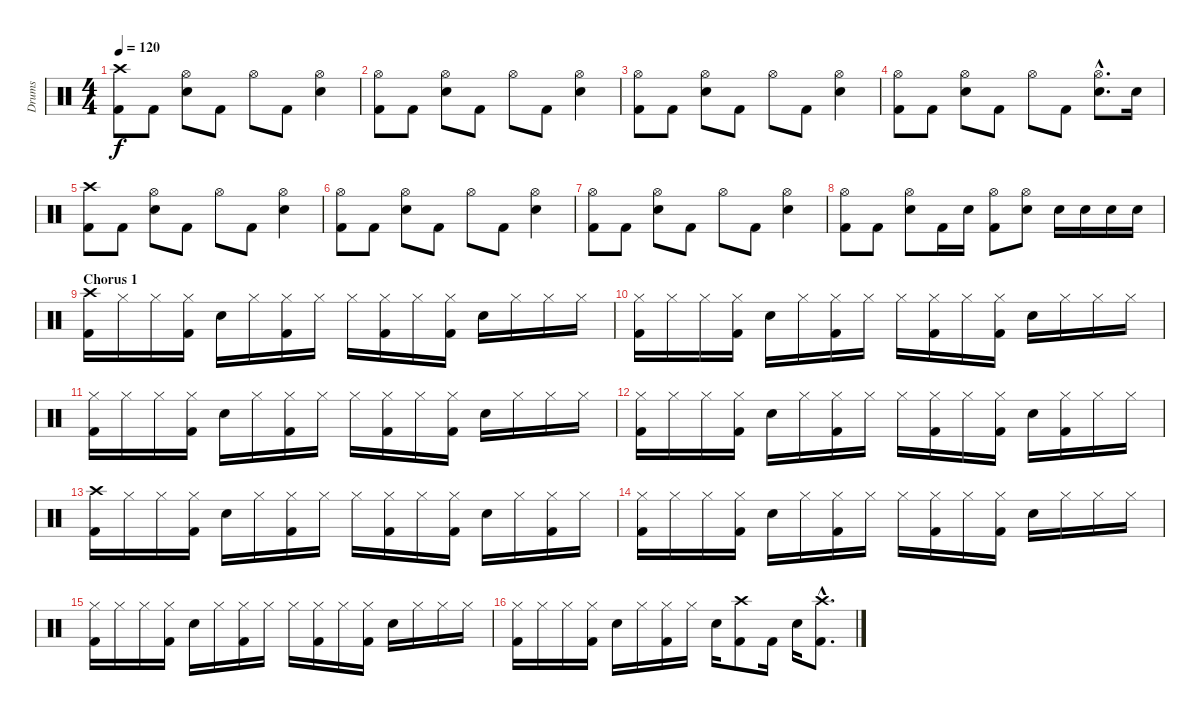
\track ("Drums" "Drums") {instrument percussion}
\staff {score}
\articulation defaults
\ts (4 4)
\tempo 120
\clef neutral
\ks c
("Crash high (hit)" "Kick (hit) 2").8{dy f} "Kick (hit) 2".8 ("Hi-Hat (open)" "Electric Snare (hit)").8 "Kick (hit) 2".8 "Hi-Hat (open)".8 "Kick (hit) 2".8 ("Hi-Hat (open)" "Electric Snare (hit)").4 |
("Hi-Hat (open)" "Kick (hit) 2").8 "Kick (hit) 2".8 ("Hi-Hat (open)" "Electric Snare (hit)").8 "Kick (hit) 2".8 "Hi-Hat (open)".8 "Kick (hit) 2".8 ("Hi-Hat (open)" "Electric Snare (hit)").4 |
("Hi-Hat (open)" "Kick (hit) 2").8 "Kick (hit) 2".8 ("Hi-Hat (open)" "Electric Snare (hit)").8 "Kick (hit) 2".8 "Hi-Hat (open)".8 "Kick (hit) 2".8 ("Hi-Hat (open)" "Electric Snare (hit)").4 |
("Hi-Hat (open)" "Kick (hit) 2").8 "Kick (hit) 2".8 ("Hi-Hat (open)" "Electric Snare (hit)").8 "Kick (hit) 2".8 "Hi-Hat (open)".8 "Kick (hit) 2".8 ("Hi-Hat (open)"{hac} "Electric Snare (hit)"{hac}).8{d} "Electric Snare (hit)".16 |
("Crash high (hit)" "Kick (hit) 2").8 "Kick (hit) 2".8 ("Hi-Hat (open)" "Electric Snare (hit)").8 "Kick (hit) 2".8 "Hi-Hat (open)".8 "Kick (hit) 2".8 ("Hi-Hat (open)" "Electric Snare (hit)").4 |
("Hi-Hat (open)" "Kick (hit) 2").8 "Kick (hit) 2".8 ("Hi-Hat (open)" "Electric Snare (hit)").8 "Kick (hit) 2".8 "Hi-Hat (open)".8 "Kick (hit) 2".8 ("Hi-Hat (open)" "Electric Snare (hit)").4 |
("Hi-Hat (open)" "Kick (hit) 2").8 "Kick (hit) 2".8 ("Hi-Hat (open)" "Electric Snare (hit)").8 "Kick (hit) 2".8 "Hi-Hat (open)".8 "Kick (hit) 2".8 ("Hi-Hat (open)" "Electric Snare (hit)").4 |
("Hi-Hat (open)" "Kick (hit) 2").8 "Kick (hit) 2".8 ("Hi-Hat (open)" "Electric Snare (hit)").8 "Kick (hit) 2".16 "Electric Snare (hit)".16 ("Hi-Hat (open)" "Kick (hit) 2").8 ("Hi-Hat (open)" "Electric Snare (hit)").8 "Electric Snare (hit)".16 "Electric Snare (hit)".16 "Electric Snare (hit)".16 "Electric Snare (hit)".16 |
\section ("" "Chorus 1")
("Crash high (hit)" "Kick (hit) 2").16 "Hi-Hat (closed)".16 "Hi-Hat (closed)".16 ("Hi-Hat (closed)" "Kick (hit) 2").16 "Electric Snare (hit)".16 "Hi-Hat (closed)".16 ("Hi-Hat (closed)" "Kick (hit) 2").16 "Hi-Hat (closed)".16 "Hi-Hat (closed)".16 ("Hi-Hat (closed)" "Kick (hit) 2").16 "Hi-Hat (closed)".16 ("Hi-Hat (closed)" "Kick (hit) 2").16 "Electric Snare (hit)".16 "Hi-Hat (closed)".16 "Hi-Hat (closed)".16 "Hi-Hat (closed)".16 |
("Hi-Hat (closed)" "Kick (hit) 2").16 "Hi-Hat (closed)".16 "Hi-Hat (closed)".16 ("Hi-Hat (closed)" "Kick (hit) 2").16 "Electric Snare (hit)".16 "Hi-Hat (closed)".16 ("Hi-Hat (closed)" "Kick (hit) 2").16 "Hi-Hat (closed)".16 "Hi-Hat (closed)".16 ("Hi-Hat (closed)" "Kick (hit) 2").16 "Hi-Hat (closed)".16 ("Hi-Hat (closed)" "Kick (hit) 2").16 "Electric Snare (hit)".16 "Hi-Hat (closed)".16 "Hi-Hat (closed)".16 "Hi-Hat (closed)".16 |
("Hi-Hat (closed)" "Kick (hit) 2").16 "Hi-Hat (closed)".16 "Hi-Hat (closed)".16 ("Hi-Hat (closed)" "Kick (hit) 2").16 "Electric Snare (hit)".16 "Hi-Hat (closed)".16 ("Hi-Hat (closed)" "Kick (hit) 2").16 "Hi-Hat (closed)".16 "Hi-Hat (closed)".16 ("Hi-Hat (closed)" "Kick (hit) 2").16 "Hi-Hat (closed)".16 ("Hi-Hat (closed)" "Kick (hit) 2").16 "Electric Snare (hit)".16 "Hi-Hat (closed)".16 "Hi-Hat (closed)".16 "Hi-Hat (closed)".16 |
("Hi-Hat (closed)" "Kick (hit) 2").16 "Hi-Hat (closed)".16 "Hi-Hat (closed)".16 ("Hi-Hat (closed)" "Kick (hit) 2").16 "Electric Snare (hit)".16 "Hi-Hat (closed)".16 ("Hi-Hat (closed)" "Kick (hit) 2").16 "Hi-Hat (closed)".16 "Hi-Hat (closed)".16 ("Hi-Hat (closed)" "Kick (hit) 2").16 "Hi-Hat (closed)".16 ("Hi-Hat (closed)" "Kick (hit) 2").16 "Electric Snare (hit)".16 ("Hi-Hat (closed)" "Kick (hit) 2").16 "Hi-Hat (closed)".16 "Hi-Hat (closed)".16 |
("Crash high (hit)" "Kick (hit) 2").16 "Hi-Hat (closed)".16 "Hi-Hat (closed)".16 ("Hi-Hat (closed)" "Kick (hit) 2").16 "Electric Snare (hit)".16 "Hi-Hat (closed)".16 ("Hi-Hat (closed)" "Kick (hit) 2").16 "Hi-Hat (closed)".16 "Hi-Hat (closed)".16 ("Hi-Hat (closed)" "Kick (hit) 2").16 "Hi-Hat (closed)".16 ("Hi-Hat (closed)" "Kick (hit) 2").16 "Electric Snare (hit)".16 "Hi-Hat (closed)".16 ("Hi-Hat (closed)" "Kick (hit) 2").16 "Hi-Hat (closed)".16 |
("Hi-Hat (closed)" "Kick (hit) 2").16 "Hi-Hat (closed)".16 "Hi-Hat (closed)".16 ("Hi-Hat (closed)" "Kick (hit) 2").16 "Electric Snare (hit)".16 "Hi-Hat (closed)".16 ("Hi-Hat (closed)" "Kick (hit) 2").16 "Hi-Hat (closed)".16 "Hi-Hat (closed)".16 ("Hi-Hat (closed)" "Kick (hit) 2").16 "Hi-Hat (closed)".16 ("Hi-Hat (closed)" "Kick (hit) 2").16 "Electric Snare (hit)".16 "Hi-Hat (closed)".16 "Hi-Hat (closed)".16 "Hi-Hat (closed)".16 |
("Hi-Hat (closed)" "Kick (hit) 2").16 "Hi-Hat (closed)".16 "Hi-Hat (closed)".16 ("Hi-Hat (closed)" "Kick (hit) 2").16 "Electric Snare (hit)".16 "Hi-Hat (closed)".16 ("Hi-Hat (closed)" "Kick (hit) 2").16 "Hi-Hat (closed)".16 "Hi-Hat (closed)".16 ("Hi-Hat (closed)" "Kick (hit) 2").16 "Hi-Hat (closed)".16 ("Hi-Hat (closed)" "Kick (hit) 2").16 "Electric Snare (hit)".16 "Hi-Hat (closed)".16 "Hi-Hat (closed)".16 "Hi-Hat (closed)".16 |
("Hi-Hat (closed)" "Kick (hit) 2").16 "Hi-Hat (closed)".16 "Hi-Hat (closed)".16 ("Hi-Hat (closed)" "Kick (hit) 2").16 "Electric Snare (hit)".16 "Hi-Hat (closed)".16 ("Hi-Hat (closed)" "Kick (hit) 2").16 "Hi-Hat (closed)".16 "Electric Snare (hit)".16 ("Crash high (hit)" "Kick (hit) 2").8 "Kick (hit) 2".16 "Electric Snare (hit)".16 ("Crash high (hit)"{hac} "Kick (hit) 2"{hac}).8{d}
